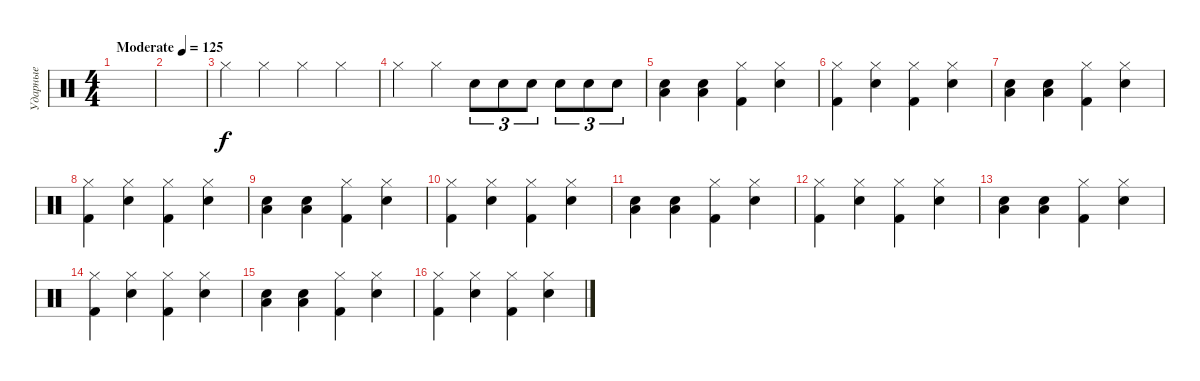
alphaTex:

\track ("Ударные" "Ударные") {instrument percussion}
\staff {score}
\articulation defaults
\ts (4 4)
\tempo (125 "Moderate")
\clef neutral
\ks c
|
|
"Hi-Hat (closed)".4 "Hi-Hat (closed)".4 "Hi-Hat (closed)".4 "Hi-Hat (closed)".4 |
"Hi-Hat (closed)".4 "Hi-Hat (closed)".4 "Snare (hit) 2".8{tu (3 2)} "Snare (hit) 2".8{tu (3 2)} "Snare (hit) 2".8{tu (3 2)} "Snare (hit) 2".8{tu (3 2)} "Snare (hit) 2".8{tu (3 2)} "Snare (hit) 2".8{tu (3 2)} |
("Snare (hit) 2" "Low Tom (hit)").4 ("Snare (hit) 2" "Low Tom (hit)").4 ("Hi-Hat (closed)" "Kick (hit) 2").4 ("Hi-Hat (closed)" "Snare (hit) 2").4 |
("Hi-Hat (closed)" "Kick (hit) 2").4 ("Hi-Hat (closed)" "Snare (hit) 2").4 ("Hi-Hat (closed)" "Kick (hit) 2").4 ("Hi-Hat (closed)" "Snare (hit) 2").4 |
("Snare (hit) 2" "Low Tom (hit)").4 ("Snare (hit) 2" "Low Tom (hit)").4 ("Hi-Hat (closed)" "Kick (hit) 2").4 ("Hi-Hat (closed)" "Snare (hit) 2").4 |
("Hi-Hat (closed)" "Kick (hit) 2").4 ("Hi-Hat (closed)" "Snare (hit) 2").4 ("Hi-Hat (closed)" "Kick (hit) 2").4 ("Hi-Hat (closed)" "Snare (hit) 2").4 |
("Snare (hit) 2" "Low Tom (hit)").4 ("Snare (hit) 2" "Low Tom (hit)").4 ("Hi-Hat (closed)" "Kick (hit) 2").4 ("Hi-Hat (closed)" "Snare (hit) 2").4 |
("Hi-Hat (closed)" "Kick (hit) 2").4 ("Hi-Hat (closed)" "Snare (hit) 2").4 ("Hi-Hat (closed)" "Kick (hit) 2").4 ("Hi-Hat (closed)" "Snare (hit) 2").4 |
("Snare (hit) 2" "Low Tom (hit)").4 ("Snare (hit) 2" "Low Tom (hit)").4 ("Hi-Hat (closed)" "Kick (hit) 2").4 ("Hi-Hat (closed)" "Snare (hit) 2").4 |
("Hi-Hat (closed)" "Kick (hit) 2").4 ("Hi-Hat (closed)" "Snare (hit) 2").4 ("Hi-Hat (closed)" "Kick (hit) 2").4 ("Hi-Hat (closed)" "Snare (hit) 2").4 |
("Snare (hit) 2" "Low Tom (hit)").4 ("Snare (hit) 2" "Low Tom (hit)").4 ("Hi-Hat (closed)" "Kick (hit) 2").4 ("Hi-Hat (closed)" "Snare (hit) 2").4 |
("Hi-Hat (closed)" "Kick (hit) 2").4 ("Hi-Hat (closed)" "Snare (hit) 2").4 ("Hi-Hat (closed)" "Kick (hit) 2").4 ("Hi-Hat (closed)" "Snare (hit) 2").4 |
("Snare (hit) 2" "Low Tom (hit)").4 ("Snare (hit) 2" "Low Tom (hit)").4 ("Hi-Hat (closed)" "Kick (hit) 2").4 ("Hi-Hat (closed)" "Snare (hit) 2").4 |
("Hi-Hat (closed)" "Kick (hit) 2").4 ("Hi-Hat (closed)" "Snare (hit) 2").4 ("Hi-Hat (closed)" "Kick (hit) 2").4 ("Hi-Hat (closed)" "Snare (hit) 2").4
